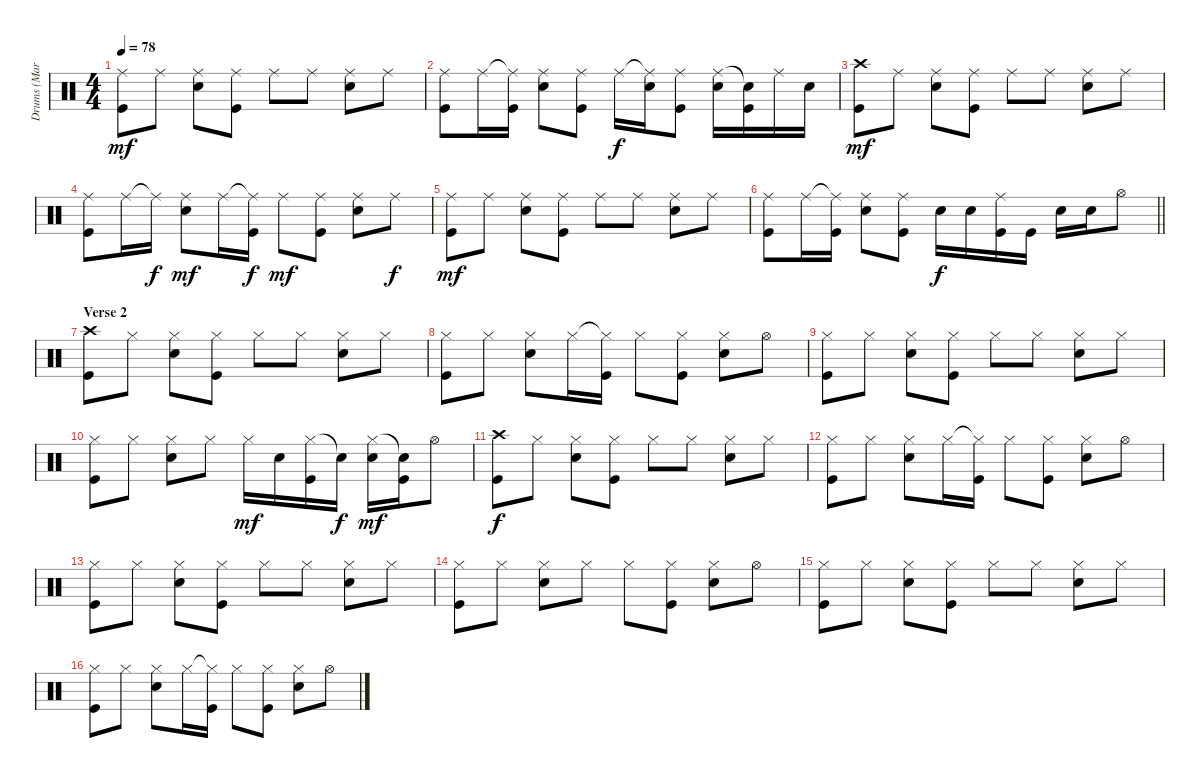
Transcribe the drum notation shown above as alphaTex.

\track ("Drums (Marcel Roemer)" "Drums (Mar") {instrument percussion}
\staff {score}
\articulation defaults
\ts (4 4)
\tempo 78
\clef neutral
\ks c
("Ride (middle)" "Kick (hit)").8{dy mf} "Ride (middle)".8 ("Ride (middle)" "Snare (hit) 2").8 ("Ride (middle)" "Kick (hit)").8 "Ride (middle)".8 "Ride (middle)".8 ("Ride (middle)" "Snare (hit) 2").8 "Ride (middle)".8 |
("Ride (middle)" "Kick (hit)").8 "Ride (middle)".16 ("Ride (middle)"{t} "Kick (hit)").16 ("Ride (middle)" "Snare (hit) 2").8 ("Ride (middle)" "Kick (hit)").8 "Ride (middle)".16{dy f} ("Ride (middle)"{t} "Snare (hit) 2").16 ("Ride (middle)" "Kick (hit)").8 ("Ride (middle)" "Snare (hit) 2").16 ("Snare (hit)"{t} "Kick (hit)").16 "Ride (middle)".16 "Snare (hit) 2".16 |
("Crash high (hit)" "Kick (hit)").8{dy mf} "Ride (middle)".8 ("Ride (middle)" "Snare (hit) 2").8 ("Ride (middle)" "Kick (hit)").8 "Ride (middle)".8 "Ride (middle)".8 ("Ride (middle)" "Snare (hit) 2").8 "Ride (middle)".8 |
("Ride (middle)" "Kick (hit)").8 "Ride (middle)".16 "Ride (middle)"{t}.16{dy f} ("Ride (middle)" "Snare (hit) 2").8{dy mf} "Ride (middle)".16 ("Ride (middle)"{t} "Kick (hit)").16{dy f} "Ride (middle)".8{dy mf} ("Ride (middle)" "Kick (hit)").8 ("Ride (middle)" "Snare (hit) 2").8 "Ride (middle)".8{dy f} |
("Ride (middle)" "Kick (hit)").8{dy mf} "Ride (middle)".8 ("Ride (middle)" "Snare (hit) 2").8 ("Ride (middle)" "Kick (hit)").8 "Ride (middle)".8 "Ride (middle)".8 ("Ride (middle)" "Snare (hit) 2").8 "Ride (middle)".8 |
\barLineRight lightlight
("Ride (middle)" "Kick (hit)").8 "Ride (middle)".16 ("Ride (middle)"{t} "Kick (hit)").16 ("Ride (middle)" "Snare (hit) 2").8 ("Ride (middle)" "Kick (hit)").8 "Snare (hit) 2".16{dy f} "Snare (hit) 2".16 ("Ride (middle)" "Kick (hit)").16 "Kick (hit)".16 "Snare (hit) 2".16 "Snare (hit) 2".16 "Hi-Hat (open)".8 |
\section ("" "Verse 2")
("Crash high (hit)" "Kick (hit)").8 "Hi-Hat (closed)".8 ("Hi-Hat (closed)" "Snare (hit) 2").8 ("Hi-Hat (closed)" "Kick (hit)").8 "Hi-Hat (closed)".8 "Hi-Hat (closed)".8 ("Hi-Hat (closed)" "Snare (hit) 2").8 "Hi-Hat (closed)".8 |
("Hi-Hat (closed)" "Kick (hit)").8 "Hi-Hat (closed)".8 ("Hi-Hat (closed)" "Snare (hit) 2").8 "Hi-Hat (closed)".16 ("Hi-Hat (closed)"{t} "Kick (hit)").16 "Hi-Hat (closed)".8 ("Hi-Hat (closed)" "Kick (hit)").8 ("Hi-Hat (closed)" "Snare (hit) 2").8 "Hi-Hat (open)".8 |
("Hi-Hat (closed)" "Kick (hit)").8 "Hi-Hat (closed)".8 ("Hi-Hat (closed)" "Snare (hit) 2").8 ("Hi-Hat (closed)" "Kick (hit)").8 "Hi-Hat (closed)".8 "Hi-Hat (closed)".8 ("Hi-Hat (closed)" "Snare (hit) 2").8 "Hi-Hat (closed)".8 |
("Hi-Hat (closed)" "Kick (hit)").8 "Hi-Hat (closed)".8 ("Hi-Hat (closed)" "Snare (hit) 2").8 "Hi-Hat (closed)".8 "Hi-Hat (closed)".16{dy mf} "Snare (hit) 2".16 ("Hi-Hat (closed)" "Kick (hit)").16 "Snare (hit)"{t}.16{dy f} ("Hi-Hat (closed)" "Snare (hit) 2").16{dy mf} ("Snare (hit)"{t} "Kick (hit)").16 "Hi-Hat (open)".8 |
("Crash high (hit)" "Kick (hit)").8{dy f} "Hi-Hat (closed)".8 ("Hi-Hat (closed)" "Snare (hit) 2").8 ("Hi-Hat (closed)" "Kick (hit)").8 "Hi-Hat (closed)".8 "Hi-Hat (closed)".8 ("Hi-Hat (closed)" "Snare (hit) 2").8 "Hi-Hat (closed)".8 |
("Hi-Hat (closed)" "Kick (hit)").8 "Hi-Hat (closed)".8 ("Hi-Hat (closed)" "Snare (hit) 2").8 "Hi-Hat (closed)".16 ("Hi-Hat (closed)"{t} "Kick (hit)").16 "Hi-Hat (closed)".8 ("Hi-Hat (closed)" "Kick (hit)").8 ("Hi-Hat (closed)" "Snare (hit) 2").8 "Hi-Hat (open)".8 |
("Hi-Hat (closed)" "Kick (hit)").8 "Hi-Hat (closed)".8 ("Hi-Hat (closed)" "Snare (hit) 2").8 ("Hi-Hat (closed)" "Kick (hit)").8 "Hi-Hat (closed)".8 "Hi-Hat (closed)".8 ("Hi-Hat (closed)" "Snare (hit) 2").8 "Hi-Hat (closed)".8 |
("Hi-Hat (closed)" "Kick (hit)").8 "Hi-Hat (closed)".8 ("Hi-Hat (closed)" "Snare (hit) 2").8 "Hi-Hat (closed)".8 "Hi-Hat (closed)".8 ("Hi-Hat (closed)" "Kick (hit)").8 ("Hi-Hat (closed)" "Snare (hit) 2").8 "Hi-Hat (open)".8 |
("Hi-Hat (closed)" "Kick (hit)").8 "Hi-Hat (closed)".8 ("Hi-Hat (closed)" "Snare (hit) 2").8 ("Hi-Hat (closed)" "Kick (hit)").8 "Hi-Hat (closed)".8 "Hi-Hat (closed)".8 ("Hi-Hat (closed)" "Snare (hit) 2").8 "Hi-Hat (closed)".8 |
("Hi-Hat (closed)" "Kick (hit)").8 "Hi-Hat (closed)".8 ("Hi-Hat (closed)" "Snare (hit) 2").8 "Hi-Hat (closed)".16 ("Hi-Hat (closed)"{t} "Kick (hit)").16 "Hi-Hat (closed)".8 ("Hi-Hat (closed)" "Kick (hit)").8 ("Hi-Hat (closed)" "Snare (hit) 2").8 "Hi-Hat (open)".8
